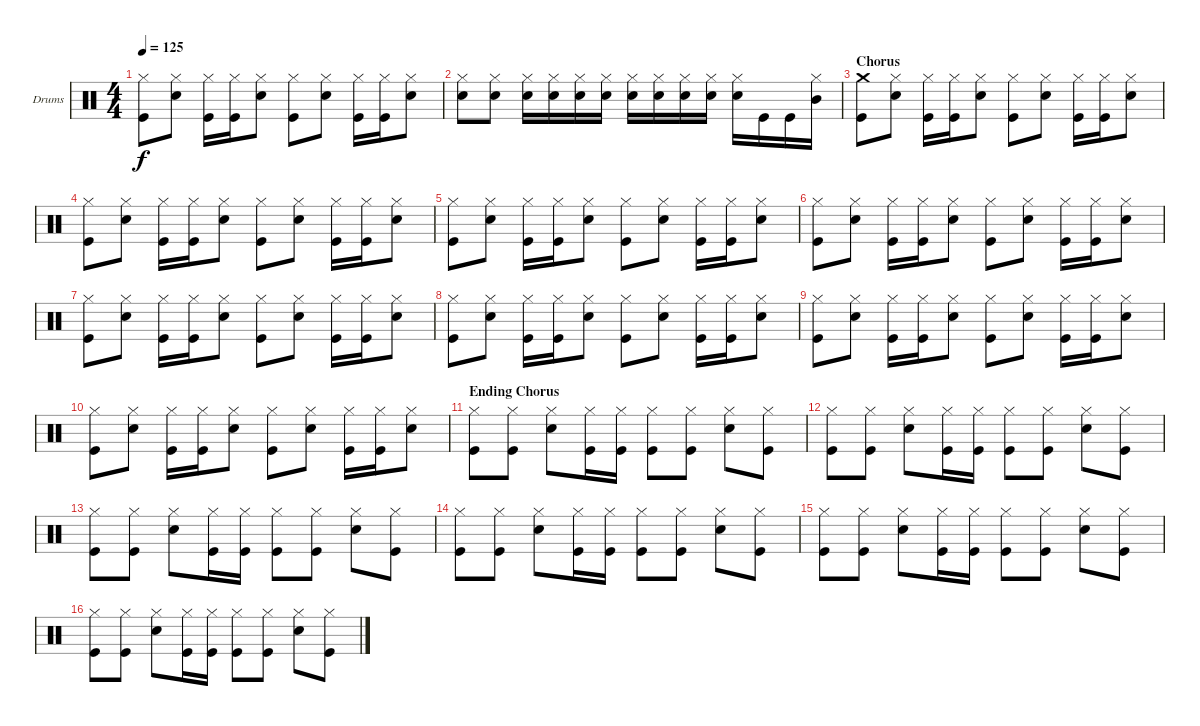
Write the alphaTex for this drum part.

\defaultSystemsLayout 4
\bracketExtendMode groupsimilarinstruments
\firstSystemTrackNameOrientation horizontal
\otherSystemsTrackNameOrientation horizontal
\track ("Drum" "Drums") {instrument percussion}
\staff {score}
\articulation defaults
\ts (4 4)
\tempo 125
\clef neutral
\ks c
("Hi-Hat (closed)" "Kick (hit)").8{dy f} ("Hi-Hat (closed)" "Snare (hit) 2").8 ("Hi-Hat (closed)" "Kick (hit)").16 ("Hi-Hat (closed)" "Kick (hit)").16 ("Hi-Hat (closed)" "Snare (hit) 2").8 ("Hi-Hat (closed)" "Kick (hit)").8 ("Hi-Hat (closed)" "Snare (hit) 2").8 ("Hi-Hat (closed)" "Kick (hit)").16 ("Hi-Hat (closed)" "Kick (hit)").16 ("Hi-Hat (closed)" "Snare (hit) 2").8 |
("Hi-Hat (closed)" "Snare (hit) 2").8 ("Hi-Hat (closed)" "Snare (hit) 2").8 ("Hi-Hat (closed)" "Snare (hit) 2").16 ("Hi-Hat (closed)" "Snare (hit) 2").16 ("Hi-Hat (closed)" "Snare (hit) 2").16 ("Hi-Hat (closed)" "Snare (hit) 2").16 ("Hi-Hat (closed)" "Snare (hit) 2").16 ("Hi-Hat (closed)" "Snare (hit) 2").16 ("Hi-Hat (closed)" "Snare (hit) 2").16 ("Hi-Hat (closed)" "Snare (hit) 2").16 ("Hi-Hat (closed)" "Snare (hit) 2").16 "Kick (hit)".16 "Kick (hit)".16 ("Hi-Hat (closed)" "Mid Tom (hit)").16 |
\section ("" "Chorus")
("Crash medium (hit)" "Kick (hit)").8 ("Hi-Hat (closed)" "Snare (hit) 2").8 ("Hi-Hat (closed)" "Kick (hit)").16 ("Hi-Hat (closed)" "Kick (hit)").16 ("Hi-Hat (closed)" "Snare (hit) 2").8 ("Hi-Hat (closed)" "Kick (hit)").8 ("Hi-Hat (closed)" "Snare (hit) 2").8 ("Hi-Hat (closed)" "Kick (hit)").16 ("Hi-Hat (closed)" "Kick (hit)").16 ("Hi-Hat (closed)" "Snare (hit) 2").8 |
("Hi-Hat (closed)" "Kick (hit)").8 ("Hi-Hat (closed)" "Snare (hit) 2").8 ("Hi-Hat (closed)" "Kick (hit)").16 ("Hi-Hat (closed)" "Kick (hit)").16 ("Hi-Hat (closed)" "Snare (hit) 2").8 ("Hi-Hat (closed)" "Kick (hit)").8 ("Hi-Hat (closed)" "Snare (hit) 2").8 ("Hi-Hat (closed)" "Kick (hit)").16 ("Hi-Hat (closed)" "Kick (hit)").16 ("Hi-Hat (closed)" "Snare (hit) 2").8 |
("Hi-Hat (closed)" "Kick (hit)").8 ("Hi-Hat (closed)" "Snare (hit) 2").8 ("Hi-Hat (closed)" "Kick (hit)").16 ("Hi-Hat (closed)" "Kick (hit)").16 ("Hi-Hat (closed)" "Snare (hit) 2").8 ("Hi-Hat (closed)" "Kick (hit)").8 ("Hi-Hat (closed)" "Snare (hit) 2").8 ("Hi-Hat (closed)" "Kick (hit)").16 ("Hi-Hat (closed)" "Kick (hit)").16 ("Hi-Hat (closed)" "Snare (hit) 2").8 |
("Hi-Hat (closed)" "Kick (hit)").8 ("Hi-Hat (closed)" "Snare (hit) 2").8 ("Hi-Hat (closed)" "Kick (hit)").16 ("Hi-Hat (closed)" "Kick (hit)").16 ("Hi-Hat (closed)" "Snare (hit) 2").8 ("Hi-Hat (closed)" "Kick (hit)").8 ("Hi-Hat (closed)" "Snare (hit) 2").8 ("Hi-Hat (closed)" "Kick (hit)").16 ("Hi-Hat (closed)" "Kick (hit)").16 ("Hi-Hat (closed)" "Snare (hit) 2").8 |
("Hi-Hat (closed)" "Kick (hit)").8 ("Hi-Hat (closed)" "Snare (hit) 2").8 ("Hi-Hat (closed)" "Kick (hit)").16 ("Hi-Hat (closed)" "Kick (hit)").16 ("Hi-Hat (closed)" "Snare (hit) 2").8 ("Hi-Hat (closed)" "Kick (hit)").8 ("Hi-Hat (closed)" "Snare (hit) 2").8 ("Hi-Hat (closed)" "Kick (hit)").16 ("Hi-Hat (closed)" "Kick (hit)").16 ("Hi-Hat (closed)" "Snare (hit) 2").8 |
("Hi-Hat (closed)" "Kick (hit)").8 ("Hi-Hat (closed)" "Snare (hit) 2").8 ("Hi-Hat (closed)" "Kick (hit)").16 ("Hi-Hat (closed)" "Kick (hit)").16 ("Hi-Hat (closed)" "Snare (hit) 2").8 ("Hi-Hat (closed)" "Kick (hit)").8 ("Hi-Hat (closed)" "Snare (hit) 2").8 ("Hi-Hat (closed)" "Kick (hit)").16 ("Hi-Hat (closed)" "Kick (hit)").16 ("Hi-Hat (closed)" "Snare (hit) 2").8 |
("Hi-Hat (closed)" "Kick (hit)").8 ("Hi-Hat (closed)" "Snare (hit) 2").8 ("Hi-Hat (closed)" "Kick (hit)").16 ("Hi-Hat (closed)" "Kick (hit)").16 ("Hi-Hat (closed)" "Snare (hit) 2").8 ("Hi-Hat (closed)" "Kick (hit)").8 ("Hi-Hat (closed)" "Snare (hit) 2").8 ("Hi-Hat (closed)" "Kick (hit)").16 ("Hi-Hat (closed)" "Kick (hit)").16 ("Hi-Hat (closed)" "Snare (hit) 2").8 |
("Hi-Hat (closed)" "Kick (hit)").8 ("Hi-Hat (closed)" "Snare (hit) 2").8 ("Hi-Hat (closed)" "Kick (hit)").16 ("Hi-Hat (closed)" "Kick (hit)").16 ("Hi-Hat (closed)" "Snare (hit) 2").8 ("Hi-Hat (closed)" "Kick (hit)").8 ("Hi-Hat (closed)" "Snare (hit) 2").8 ("Hi-Hat (closed)" "Kick (hit)").16 ("Hi-Hat (closed)" "Kick (hit)").16 ("Hi-Hat (closed)" "Snare (hit) 2").8 |
\section ("" "Ending Chorus")
("Hi-Hat (closed)" "Kick (hit)").8 ("Hi-Hat (closed)" "Kick (hit)").8 ("Hi-Hat (closed)" "Snare (hit) 2").8 ("Hi-Hat (closed)" "Kick (hit)").16 ("Hi-Hat (closed)" "Kick (hit)").16 ("Hi-Hat (closed)" "Kick (hit)").8 ("Hi-Hat (closed)" "Kick (hit)").8 ("Hi-Hat (closed)" "Snare (hit) 2").8 ("Hi-Hat (closed)" "Kick (hit)").8 |
("Hi-Hat (closed)" "Kick (hit)").8 ("Hi-Hat (closed)" "Kick (hit)").8 ("Hi-Hat (closed)" "Snare (hit) 2").8 ("Hi-Hat (closed)" "Kick (hit)").16 ("Hi-Hat (closed)" "Kick (hit)").16 ("Hi-Hat (closed)" "Kick (hit)").8 ("Hi-Hat (closed)" "Kick (hit)").8 ("Hi-Hat (closed)" "Snare (hit) 2").8 ("Hi-Hat (closed)" "Kick (hit)").8 |
("Hi-Hat (closed)" "Kick (hit)").8 ("Hi-Hat (closed)" "Kick (hit)").8 ("Hi-Hat (closed)" "Snare (hit) 2").8 ("Hi-Hat (closed)" "Kick (hit)").16 ("Hi-Hat (closed)" "Kick (hit)").16 ("Hi-Hat (closed)" "Kick (hit)").8 ("Hi-Hat (closed)" "Kick (hit)").8 ("Hi-Hat (closed)" "Snare (hit) 2").8 ("Hi-Hat (closed)" "Kick (hit)").8 |
("Hi-Hat (closed)" "Kick (hit)").8 ("Hi-Hat (closed)" "Kick (hit)").8 ("Hi-Hat (closed)" "Snare (hit) 2").8 ("Hi-Hat (closed)" "Kick (hit)").16 ("Hi-Hat (closed)" "Kick (hit)").16 ("Hi-Hat (closed)" "Kick (hit)").8 ("Hi-Hat (closed)" "Kick (hit)").8 ("Hi-Hat (closed)" "Snare (hit) 2").8 ("Hi-Hat (closed)" "Kick (hit)").8 |
("Hi-Hat (closed)" "Kick (hit)").8 ("Hi-Hat (closed)" "Kick (hit)").8 ("Hi-Hat (closed)" "Snare (hit) 2").8 ("Hi-Hat (closed)" "Kick (hit)").16 ("Hi-Hat (closed)" "Kick (hit)").16 ("Hi-Hat (closed)" "Kick (hit)").8 ("Hi-Hat (closed)" "Kick (hit)").8 ("Hi-Hat (closed)" "Snare (hit) 2").8 ("Hi-Hat (closed)" "Kick (hit)").8 |
("Hi-Hat (closed)" "Kick (hit)").8 ("Hi-Hat (closed)" "Kick (hit)").8 ("Hi-Hat (closed)" "Snare (hit) 2").8 ("Hi-Hat (closed)" "Kick (hit)").16 ("Hi-Hat (closed)" "Kick (hit)").16 ("Hi-Hat (closed)" "Kick (hit)").8 ("Hi-Hat (closed)" "Kick (hit)").8 ("Hi-Hat (closed)" "Snare (hit) 2").8 ("Hi-Hat (closed)" "Kick (hit)").8
